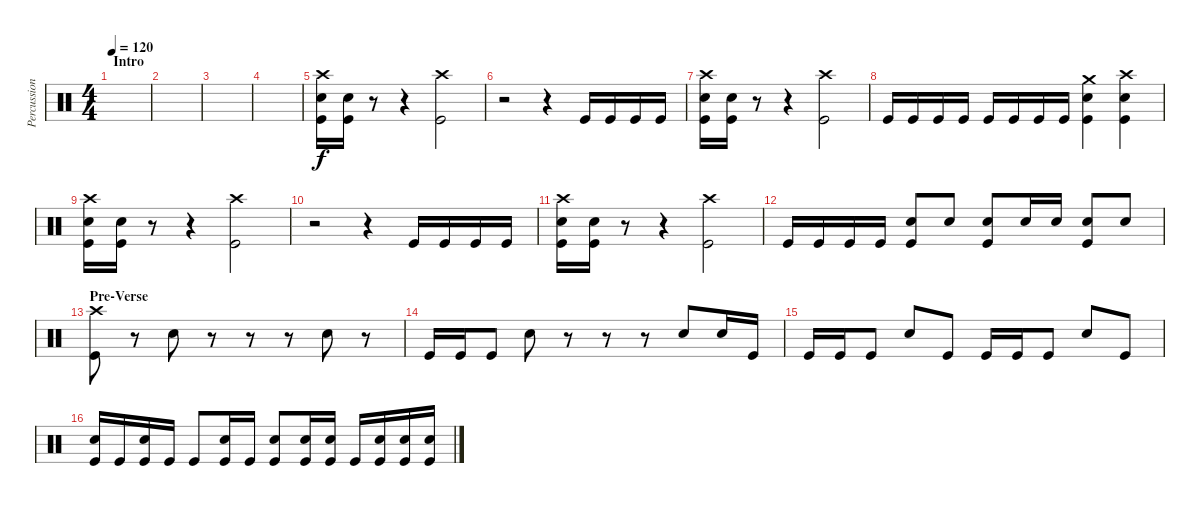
\track ("Percussion" "Percussion") {instrument percussion}
\staff {score}
\articulation defaults
\ts (4 4)
\section ("" "Intro")
\tempo 120
\clef neutral
\ks c
|
|
|
|
("Crash high (hit)" "Snare (hit) 2" "Kick (hit)").16 ("Snare (hit) 2" "Kick (hit)").16 r.8 r.4 ("Crash high (hit)" "Kick (hit)").2 |
r.2 r.4 "Kick (hit)".16 "Kick (hit)".16 "Kick (hit)".16 "Kick (hit)".16 |
("Crash high (hit)" "Snare (hit) 2" "Kick (hit)").16 ("Snare (hit) 2" "Kick (hit)").16 r.8 r.4 ("Crash high (hit)" "Kick (hit)").2 |
"Kick (hit)".16 "Kick (hit)".16 "Kick (hit)".16 "Kick (hit)".16 "Kick (hit)".16 "Kick (hit)".16 "Kick (hit)".16 "Kick (hit)".16 ("Crash medium (hit)" "Snare (hit) 2" "Kick (hit)").4 ("Crash high (hit)" "Snare (hit) 2" "Kick (hit)").4 |
("Crash high (hit)" "Snare (hit) 2" "Kick (hit)").16 ("Snare (hit) 2" "Kick (hit)").16 r.8 r.4 ("Crash high (hit)" "Kick (hit)").2 |
r.2 r.4 "Kick (hit)".16 "Kick (hit)".16 "Kick (hit)".16 "Kick (hit)".16 |
("Crash high (hit)" "Snare (hit) 2" "Kick (hit)").16 ("Snare (hit) 2" "Kick (hit)").16 r.8 r.4 ("Crash high (hit)" "Kick (hit)").2 |
"Kick (hit)".16 "Kick (hit)".16 "Kick (hit)".16 "Kick (hit)".16 ("Snare (hit) 2" "Kick (hit)").8 "Snare (hit) 2".8 ("Snare (hit) 2" "Kick (hit)").8 "Snare (hit) 2".16 "Snare (hit) 2".16 ("Snare (hit) 2" "Kick (hit)").8 "Snare (hit) 2".8 |
\section ("" "Pre-Verse")
("Crash high (hit)" "Kick (hit)").8 r.8 "Snare (hit) 2".8 r.8 r.8 r.8 "Snare (hit) 2".8 r.8 |
"Kick (hit)".16 "Kick (hit)".16 "Kick (hit)".8 "Snare (hit) 2".8 r.8 r.8 r.8 "Snare (hit) 2".8 "Snare (hit) 2".16 "Kick (hit)".16 |
"Kick (hit)".16 "Kick (hit)".16 "Kick (hit)".8 "Snare (hit) 2".8 "Kick (hit)".8 "Kick (hit)".16 "Kick (hit)".16 "Kick (hit)".8 "Snare (hit) 2".8 "Kick (hit)".8 |
("Snare (hit) 2" "Kick (hit)").16 "Kick (hit)".16 ("Snare (hit) 2" "Kick (hit)").16 "Kick (hit)".16 "Kick (hit)".8 ("Snare (hit) 2" "Kick (hit)").16 "Kick (hit)".16 ("Snare (hit) 2" "Kick (hit)").8 ("Snare (hit) 2" "Kick (hit)").16 ("Snare (hit) 2" "Kick (hit)").16 "Kick (hit)".16 ("Snare (hit) 2" "Kick (hit)").16 ("Snare (hit) 2" "Kick (hit)").16 ("Snare (hit) 2" "Kick (hit)").16
